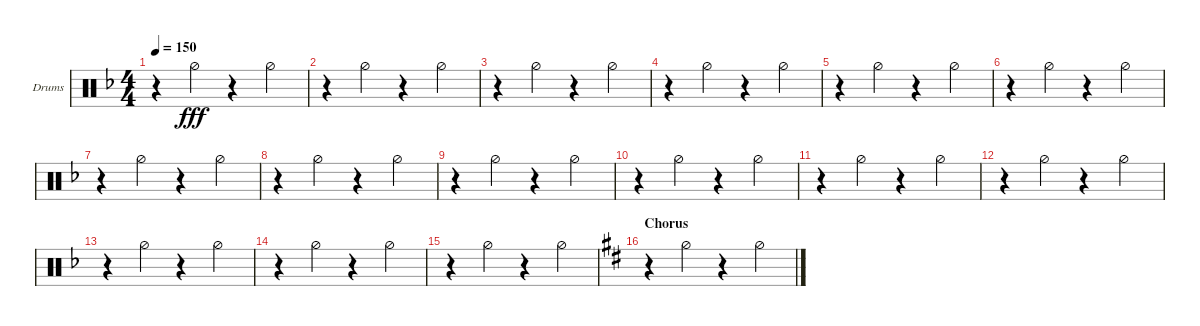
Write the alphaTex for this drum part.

\defaultSystemsLayout 4
\bracketExtendMode groupsimilarinstruments
\firstSystemTrackNameOrientation horizontal
\otherSystemsTrackNameOrientation horizontal
\track ("Drumkit" "Drums") {instrument percussion}
\staff {score}
\articulation defaults
\ts (4 4)
\tempo 150
\clef neutral
\ks f
r.4{dy fff} "Hi-Hat (half)".4 r.4 "Hi-Hat (half)".4 |
r.4 "Hi-Hat (half)".4 r.4 "Hi-Hat (half)".4 |
r.4 "Hi-Hat (half)".4 r.4 "Hi-Hat (half)".4 |
r.4 "Hi-Hat (half)".4 r.4 "Hi-Hat (half)".4 |
r.4 "Hi-Hat (half)".4 r.4 "Hi-Hat (half)".4 |
r.4 "Hi-Hat (half)".4 r.4 "Hi-Hat (half)".4 |
r.4 "Hi-Hat (half)".4 r.4 "Hi-Hat (half)".4 |
r.4 "Hi-Hat (half)".4 r.4 "Hi-Hat (half)".4 |
r.4 "Hi-Hat (half)".4 r.4 "Hi-Hat (half)".4 |
r.4 "Hi-Hat (half)".4 r.4 "Hi-Hat (half)".4 |
r.4 "Hi-Hat (half)".4 r.4 "Hi-Hat (half)".4 |
r.4 "Hi-Hat (half)".4 r.4 "Hi-Hat (half)".4 |
r.4 "Hi-Hat (half)".4 r.4 "Hi-Hat (half)".4 |
r.4 "Hi-Hat (half)".4 r.4 "Hi-Hat (half)".4 |
r.4 "Hi-Hat (half)".4 r.4 "Hi-Hat (half)".4 |
\section ("" "Chorus")
\ks d
r.4 "Hi-Hat (half)".4 r.4 "Hi-Hat (half)".4
